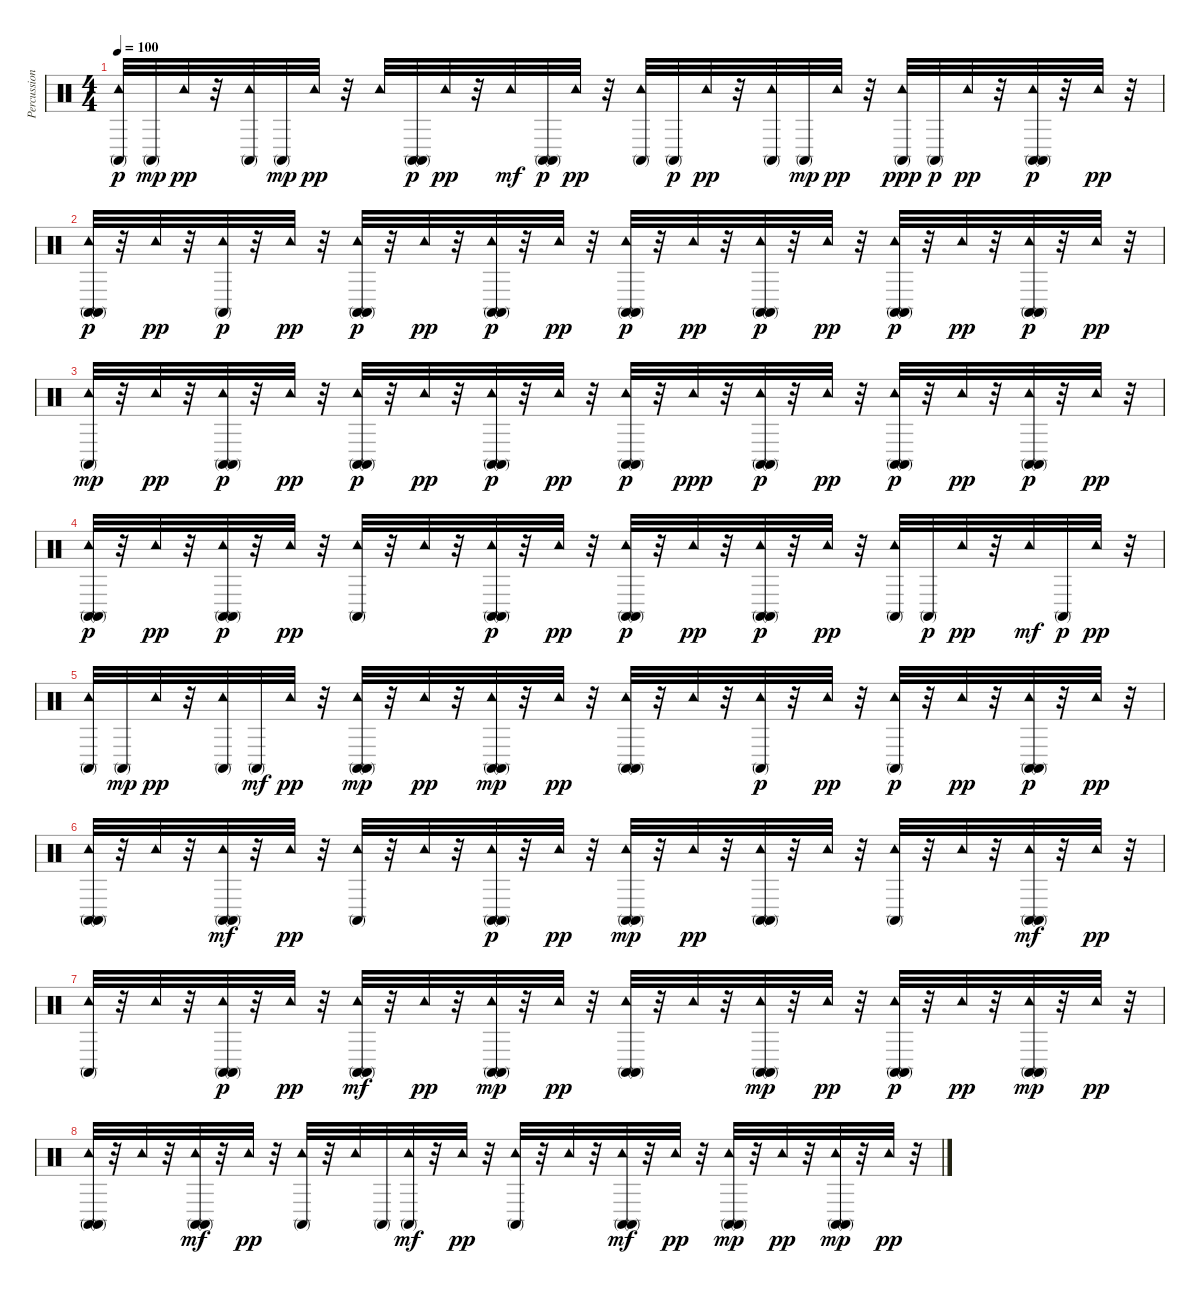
\track ("Percussions" "Percussion") {instrument percussion}
\staff {score}
\articulation defaults
\ts (4 4)
\tempo 100
\clef neutral
\ks c
("Conga high (mute)" "Tambourine (hit)").32{dy p} "Conga high (mute)".32{dy mp} "Tambourine (hit)".32{dy pp} r.32 ("Tambourine (hit)" "Conga high (mute)").32 "Conga high (mute)".32{dy mp} "Tambourine (hit)".32{dy pp} r.32 "Tambourine (hit)".32 ("Conga high (mute)" "Conga high (mute)").32{dy p} "Tambourine (hit)".32{dy pp} r.32 "Tambourine (hit)".32{dy mf} ("Conga high (mute)" "Conga high (mute)").32{dy p} "Tambourine (hit)".32{dy pp} r.32 ("Tambourine (hit)" "Conga high (mute)").32 "Conga high (mute)".32{dy p} "Tambourine (hit)".32{dy pp} r.32 ("Tambourine (hit)" "Conga high (mute)").32 "Conga high (mute)".32{dy mp} "Tambourine (hit)".32{dy pp} r.32 ("Tambourine (hit)" "Conga high (mute)").32{dy ppp} "Conga high (mute)".32{dy p} "Tambourine (hit)".32{dy pp} r.32 ("Tambourine (hit)" "Conga high (mute)" "Conga high (mute)").32{dy p} r.32 "Tambourine (hit)".32{dy pp} r.32 |
("Tambourine (hit)" "Conga high (mute)" "Conga high (mute)").32{dy p} r.32 "Tambourine (hit)".32{dy pp} r.32 ("Tambourine (hit)" "Conga high (mute)").32{dy p} r.32 "Tambourine (hit)".32{dy pp} r.32 ("Conga high (mute)" "Tambourine (hit)" "Conga high (mute)").32{dy p} r.32 "Tambourine (hit)".32{dy pp} r.32 ("Conga high (mute)" "Tambourine (hit)" "Conga high (mute)").32{dy p} r.32 "Tambourine (hit)".32{dy pp} r.32 ("Conga high (mute)" "Tambourine (hit)" "Conga high (mute)").32{dy p} r.32 "Tambourine (hit)".32{dy pp} r.32 ("Conga high (mute)" "Tambourine (hit)" "Conga high (mute)").32{dy p} r.32 "Tambourine (hit)".32{dy pp} r.32 ("Conga high (mute)" "Tambourine (hit)" "Conga high (mute)").32{dy p} r.32 "Tambourine (hit)".32{dy pp} r.32 ("Conga high (mute)" "Tambourine (hit)" "Conga high (mute)").32{dy p} r.32 "Tambourine (hit)".32{dy pp} r.32 |
("Tambourine (hit)" "Conga high (mute)").32{dy mp} r.32 "Tambourine (hit)".32{dy pp} r.32 ("Tambourine (hit)" "Conga high (mute)" "Conga high (mute)").32{dy p} r.32 "Tambourine (hit)".32{dy pp} r.32 ("Tambourine (hit)" "Conga high (mute)" "Conga high (mute)").32{dy p} r.32 "Tambourine (hit)".32{dy pp} r.32 ("Tambourine (hit)" "Conga high (mute)" "Conga high (mute)").32{dy p} r.32 "Tambourine (hit)".32{dy pp} r.32 ("Conga high (mute)" "Tambourine (hit)" "Conga high (mute)").32{dy p} r.32 "Tambourine (hit)".32{dy ppp} r.32 ("Tambourine (hit)" "Conga high (mute)" "Conga high (mute)").32{dy p} r.32 "Tambourine (hit)".32{dy pp} r.32 ("Conga high (mute)" "Tambourine (hit)" "Conga high (mute)").32{dy p} r.32 "Tambourine (hit)".32{dy pp} r.32 ("Conga high (mute)" "Tambourine (hit)" "Conga high (mute)").32{dy p} r.32 "Tambourine (hit)".32{dy pp} r.32 |
("Conga high (mute)" "Tambourine (hit)" "Conga high (mute)").32{dy p} r.32 "Tambourine (hit)".32{dy pp} r.32 ("Conga high (mute)" "Tambourine (hit)" "Conga high (mute)").32{dy p} r.32 "Tambourine (hit)".32{dy pp} r.32 ("Conga high (mute)" "Tambourine (hit)").32 r.32 "Tambourine (hit)".32 r.32 ("Conga high (mute)" "Tambourine (hit)" "Conga high (mute)").32{dy p} r.32 "Tambourine (hit)".32{dy pp} r.32 ("Tambourine (hit)" "Conga high (mute)" "Conga high (mute)").32{dy p} r.32 "Tambourine (hit)".32{dy pp} r.32 ("Tambourine (hit)" "Conga high (mute)" "Conga high (mute)").32{dy p} r.32 "Tambourine (hit)".32{dy pp} r.32 ("Tambourine (hit)" "Conga high (mute)").32 "Conga high (mute)".32{dy p} "Tambourine (hit)".32{dy pp} r.32 "Tambourine (hit)".32{dy mf} "Conga high (mute)".32{dy p} "Tambourine (hit)".32{dy pp} r.32 |
("Tambourine (hit)" "Conga high (mute)").32 "Conga high (mute)".32{dy mp} "Tambourine (hit)".32{dy pp} r.32 ("Tambourine (hit)" "Conga high (mute)").32 "Conga high (mute)".32{dy mf} "Tambourine (hit)".32{dy pp} r.32 ("Tambourine (hit)" "Conga high (mute)" "Conga high (mute)").32{dy mp} r.32 "Tambourine (hit)".32{dy pp} r.32 ("Conga high (mute)" "Conga high (mute)" "Tambourine (hit)").32{dy mp} r.32 "Tambourine (hit)".32{dy pp} r.32 ("Conga high (mute)" "Conga high (mute)" "Tambourine (hit)").32 r.32 "Tambourine (hit)".32 r.32 ("Tambourine (hit)" "Conga high (mute)").32{dy p} r.32 "Tambourine (hit)".32{dy pp} r.32 ("Tambourine (hit)" "Conga high (mute)").32{dy p} r.32 "Tambourine (hit)".32{dy pp} r.32 ("Conga high (mute)" "Tambourine (hit)" "Conga high (mute)").32{dy p} r.32 "Tambourine (hit)".32{dy pp} r.32 |
("Conga high (mute)" "Conga high (mute)" "Tambourine (hit)").32 r.32 "Tambourine (hit)".32 r.32 ("Conga high (mute)" "Conga high (mute)" "Tambourine (hit)").32{dy mf} r.32 "Tambourine (hit)".32{dy pp} r.32 ("Conga high (mute)" "Tambourine (hit)").32 r.32 "Tambourine (hit)".32 r.32 ("Conga high (mute)" "Tambourine (hit)" "Conga high (mute)").32{dy p} r.32 "Tambourine (hit)".32{dy pp} r.32 ("Tambourine (hit)" "Conga high (mute)" "Conga high (mute)").32{dy mp} r.32 "Tambourine (hit)".32{dy pp} r.32 ("Tambourine (hit)" "Conga high (mute)" "Conga high (mute)").32 r.32 "Tambourine (hit)".32 r.32 ("Conga high (mute)" "Tambourine (hit)").32 r.32 "Tambourine (hit)".32 r.32 ("Conga high (mute)" "Conga high (mute)" "Tambourine (hit)").32{dy mf} r.32 "Tambourine (hit)".32{dy pp} r.32 |
("Conga high (mute)" "Tambourine (hit)").32 r.32 "Tambourine (hit)".32 r.32 ("Conga high (mute)" "Tambourine (hit)" "Conga high (mute)").32{dy p} r.32 "Tambourine (hit)".32{dy pp} r.32 ("Conga high (mute)" "Tambourine (hit)" "Conga high (mute)").32{dy mf} r.32 "Tambourine (hit)".32{dy pp} r.32 ("Conga high (mute)" "Tambourine (hit)" "Conga high (mute)").32{dy mp} r.32 "Tambourine (hit)".32{dy pp} r.32 ("Conga high (mute)" "Conga high (mute)" "Tambourine (hit)").32 r.32 "Tambourine (hit)".32 r.32 ("Conga high (mute)" "Tambourine (hit)" "Conga high (mute)").32{dy mp} r.32 "Tambourine (hit)".32{dy pp} r.32 ("Conga high (mute)" "Tambourine (hit)" "Conga high (mute)").32{dy p} r.32 "Tambourine (hit)".32{dy pp} r.32 ("Conga high (mute)" "Conga high (mute)" "Tambourine (hit)").32{dy mp} r.32 "Tambourine (hit)".32{dy pp} r.32 |
("Conga high (mute)" "Conga high (mute)" "Tambourine (hit)").32 r.32 "Tambourine (hit)".32 r.32 ("Conga high (mute)" "Conga high (mute)" "Tambourine (hit)").32{dy mf} r.32 "Tambourine (hit)".32{dy pp} r.32 ("Conga high (mute)" "Tambourine (hit)").32 r.32 "Tambourine (hit)".32 "Conga high (mute)".32 ("Conga high (mute)" "Tambourine (hit)").32{dy mf} r.32 "Tambourine (hit)".32{dy pp} r.32 ("Conga high (mute)" "Tambourine (hit)").32 r.32 "Tambourine (hit)".32 r.32 ("Conga high (mute)" "Conga high (mute)" "Tambourine (hit)").32{dy mf} r.32 "Tambourine (hit)".32{dy pp} r.32 ("Conga high (mute)" "Tambourine (hit)" "Conga high (mute)").32{dy mp} r.32 "Tambourine (hit)".32{dy pp} r.32 ("Conga high (mute)" "Tambourine (hit)" "Conga high (mute)").32{dy mp} r.32 "Tambourine (hit)".32{dy pp} r.32
